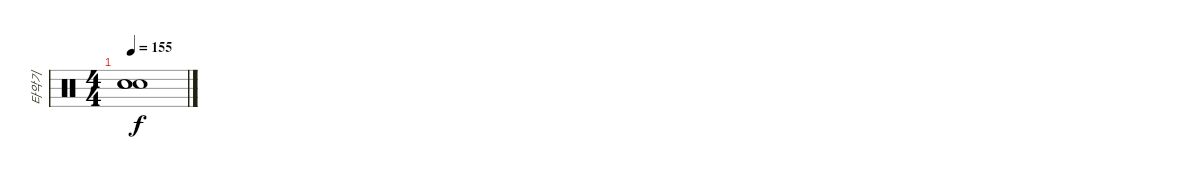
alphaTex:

\track ("타악기" "타악기") {instrument percussion}
\staff {score}
\articulation defaults
\ts (4 4)
\tempo 155
\clef neutral
\ks c
("Snare (hit)"{t} "Snare (hit)"{t} "Snare (hit)"{t}).1{dy f}
